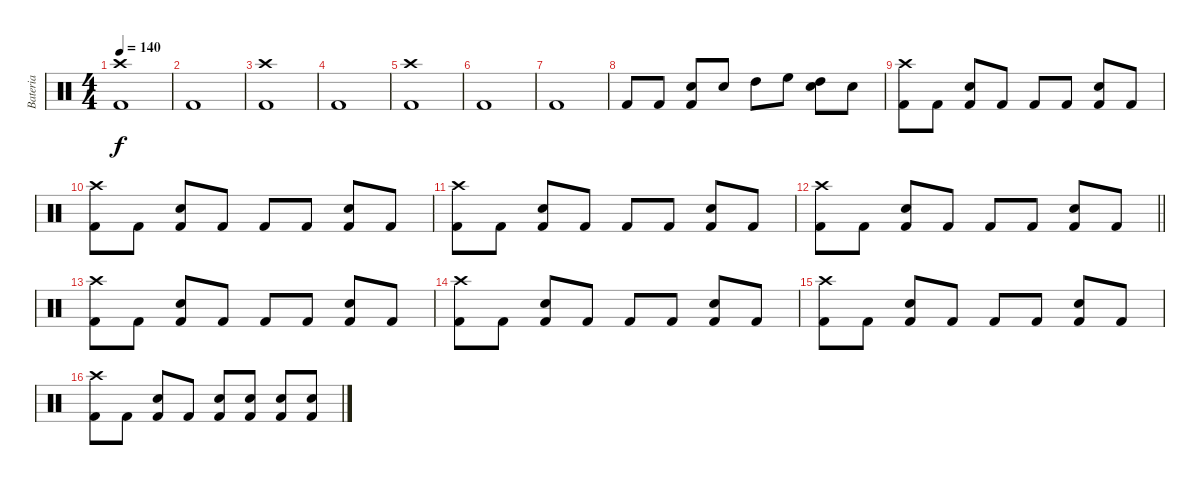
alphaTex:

\track ("Bateria" "Bateria") {instrument percussion}
\staff {score}
\articulation defaults
\ts (4 4)
\tempo 140
\clef neutral
\ks c
("Kick (hit) 2" "Crash high (hit)").1{dy f} |
"Kick (hit) 2".1 |
("Kick (hit) 2" "Crash high (hit)").1 |
"Kick (hit) 2".1 |
("Kick (hit) 2" "Crash high (hit)").1 |
"Kick (hit) 2".1 |
"Kick (hit) 2".1 |
"Kick (hit) 2".8 "Kick (hit) 2".8 ("Kick (hit) 2" "Electric Snare (hit)").8 "Snare (hit) 2".8 "High Tom (hit)".8 "High Floor Tom (hit)".8 ("High Tom (hit)" "Electric Snare (hit)").8 "Snare (hit) 2".8 |
("Kick (hit) 2" "Crash high (hit)").8 "Kick (hit) 2".8 ("Kick (hit) 2" "Electric Snare (hit)").8 "Kick (hit) 2".8 "Kick (hit) 2".8 "Kick (hit) 2".8 ("Kick (hit) 2" "Electric Snare (hit)").8 "Kick (hit) 2".8 |
("Kick (hit) 2" "Crash high (hit)").8 "Kick (hit) 2".8 ("Kick (hit) 2" "Electric Snare (hit)").8 "Kick (hit) 2".8 "Kick (hit) 2".8 "Kick (hit) 2".8 ("Kick (hit) 2" "Electric Snare (hit)").8 "Kick (hit) 2".8 |
("Kick (hit) 2" "Crash high (hit)").8 "Kick (hit) 2".8 ("Kick (hit) 2" "Electric Snare (hit)").8 "Kick (hit) 2".8 "Kick (hit) 2".8 "Kick (hit) 2".8 ("Kick (hit) 2" "Electric Snare (hit)").8 "Kick (hit) 2".8 |
\barLineRight lightlight
("Kick (hit) 2" "Crash high (hit)").8 "Kick (hit) 2".8 ("Kick (hit) 2" "Electric Snare (hit)").8 "Kick (hit) 2".8 "Kick (hit) 2".8 "Kick (hit) 2".8 ("Kick (hit) 2" "Electric Snare (hit)").8 "Kick (hit) 2".8 |
("Kick (hit) 2" "Crash high (hit)").8 "Kick (hit) 2".8 ("Kick (hit) 2" "Electric Snare (hit)").8 "Kick (hit) 2".8 "Kick (hit) 2".8 "Kick (hit) 2".8 ("Kick (hit) 2" "Electric Snare (hit)").8 "Kick (hit) 2".8 |
("Kick (hit) 2" "Crash high (hit)").8 "Kick (hit) 2".8 ("Kick (hit) 2" "Electric Snare (hit)").8 "Kick (hit) 2".8 "Kick (hit) 2".8 "Kick (hit) 2".8 ("Kick (hit) 2" "Electric Snare (hit)").8 "Kick (hit) 2".8 |
("Kick (hit) 2" "Crash high (hit)").8 "Kick (hit) 2".8 ("Kick (hit) 2" "Electric Snare (hit)").8 "Kick (hit) 2".8 "Kick (hit) 2".8 "Kick (hit) 2".8 ("Kick (hit) 2" "Electric Snare (hit)").8 "Kick (hit) 2".8 |
("Kick (hit) 2" "Crash high (hit)").8 "Kick (hit) 2".8 ("Kick (hit) 2" "Electric Snare (hit)").8 "Kick (hit) 2".8 ("Kick (hit) 2" "Electric Snare (hit)").8 ("Kick (hit) 2" "Electric Snare (hit)").8 ("Kick (hit) 2" "Electric Snare (hit)").8 ("Kick (hit) 2" "Electric Snare (hit)").8
